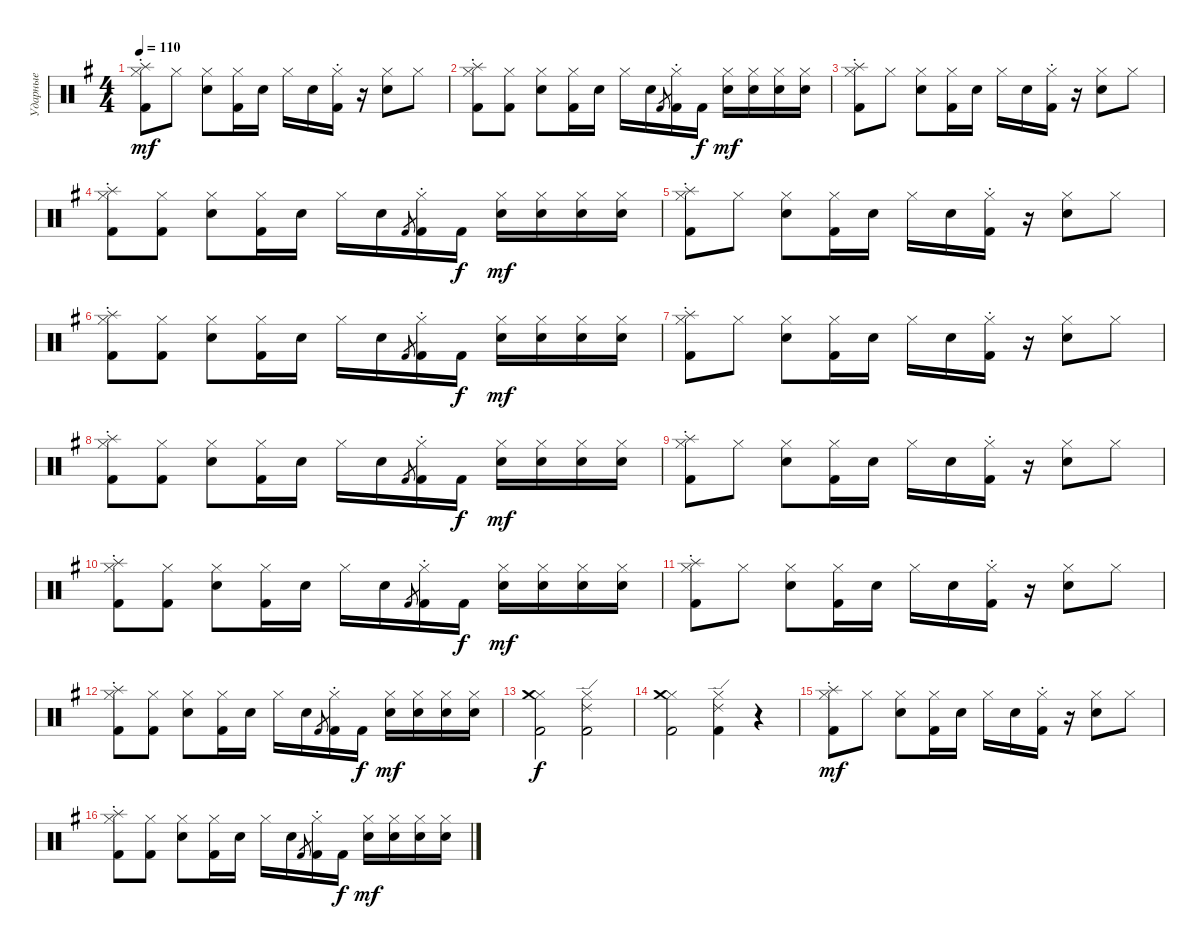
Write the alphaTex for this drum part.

\track ("Ударные" "Ударные") {instrument percussion}
\staff {score}
\articulation defaults
\ts (4 4)
\tempo 110
\clef neutral
\ks eminor
("Hi-Hat (closed)" "Splash (hit)" "Kick (hit) 2"{st}).8{dy mf} "Hi-Hat (closed)".8 ("Hi-Hat (closed)" "Snare (hit) 2").8 ("Hi-Hat (closed)" "Kick (hit) 2").16 "Snare (hit) 2".16 "Hi-Hat (closed)".16 "Snare (hit) 2".16 ("Hi-Hat (closed)" "Kick (hit) 2"{st}).16 r.16 ("Hi-Hat (closed)" "Snare (hit) 2").8 "Hi-Hat (closed)".8 |
("Hi-Hat (closed)" "Splash (hit)" "Kick (hit) 2"{st}).8 ("Hi-Hat (closed)" "Kick (hit) 2").8 ("Hi-Hat (closed)" "Snare (hit) 2").8 ("Hi-Hat (closed)" "Kick (hit) 2").16 "Snare (hit) 2".16 "Hi-Hat (closed)".16 "Snare (hit) 2".16 "Kick (hit) 2".8{gr} ("Hi-Hat (closed)" "Kick (hit) 2"{st}).16 "Kick (hit) 2".16{dy f} ("Hi-Hat (closed)" "Snare (hit) 2").16{dy mf} ("Hi-Hat (closed)" "Snare (hit) 2").16 ("Hi-Hat (closed)" "Snare (hit) 2").16 ("Hi-Hat (closed)" "Snare (hit) 2").16 |
("Hi-Hat (closed)" "Splash (hit)" "Kick (hit) 2"{st}).8 "Hi-Hat (closed)".8 ("Hi-Hat (closed)" "Snare (hit) 2").8 ("Hi-Hat (closed)" "Kick (hit) 2").16 "Snare (hit) 2".16 "Hi-Hat (closed)".16 "Snare (hit) 2".16 ("Hi-Hat (closed)" "Kick (hit) 2"{st}).16 r.16 ("Hi-Hat (closed)" "Snare (hit) 2").8 "Hi-Hat (closed)".8 |
("Hi-Hat (closed)" "Splash (hit)" "Kick (hit) 2"{st}).8 ("Hi-Hat (closed)" "Kick (hit) 2").8 ("Hi-Hat (closed)" "Snare (hit) 2").8 ("Hi-Hat (closed)" "Kick (hit) 2").16 "Snare (hit) 2".16 "Hi-Hat (closed)".16 "Snare (hit) 2".16 "Kick (hit) 2".8{gr} ("Hi-Hat (closed)" "Kick (hit) 2"{st}).16 "Kick (hit) 2".16{dy f} ("Hi-Hat (closed)" "Snare (hit) 2").16{dy mf} ("Hi-Hat (closed)" "Snare (hit) 2").16 ("Hi-Hat (closed)" "Snare (hit) 2").16 ("Hi-Hat (closed)" "Snare (hit) 2").16 |
("Hi-Hat (closed)" "Splash (hit)" "Kick (hit) 2"{st}).8 "Hi-Hat (closed)".8 ("Hi-Hat (closed)" "Snare (hit) 2").8 ("Hi-Hat (closed)" "Kick (hit) 2").16 "Snare (hit) 2".16 "Hi-Hat (closed)".16 "Snare (hit) 2".16 ("Hi-Hat (closed)" "Kick (hit) 2"{st}).16 r.16 ("Hi-Hat (closed)" "Snare (hit) 2").8 "Hi-Hat (closed)".8 |
("Hi-Hat (closed)" "Splash (hit)" "Kick (hit) 2"{st}).8 ("Hi-Hat (closed)" "Kick (hit) 2").8 ("Hi-Hat (closed)" "Snare (hit) 2").8 ("Hi-Hat (closed)" "Kick (hit) 2").16 "Snare (hit) 2".16 "Hi-Hat (closed)".16 "Snare (hit) 2".16 "Kick (hit) 2".8{gr} ("Hi-Hat (closed)" "Kick (hit) 2"{st}).16 "Kick (hit) 2".16{dy f} ("Hi-Hat (closed)" "Snare (hit) 2").16{dy mf} ("Hi-Hat (closed)" "Snare (hit) 2").16 ("Hi-Hat (closed)" "Snare (hit) 2").16 ("Hi-Hat (closed)" "Snare (hit) 2").16 |
("Hi-Hat (closed)" "Splash (hit)" "Kick (hit) 2"{st}).8 "Hi-Hat (closed)".8 ("Hi-Hat (closed)" "Snare (hit) 2").8 ("Hi-Hat (closed)" "Kick (hit) 2").16 "Snare (hit) 2".16 "Hi-Hat (closed)".16 "Snare (hit) 2".16 ("Hi-Hat (closed)" "Kick (hit) 2"{st}).16 r.16 ("Hi-Hat (closed)" "Snare (hit) 2").8 "Hi-Hat (closed)".8 |
("Hi-Hat (closed)" "Splash (hit)" "Kick (hit) 2"{st}).8 ("Hi-Hat (closed)" "Kick (hit) 2").8 ("Hi-Hat (closed)" "Snare (hit) 2").8 ("Hi-Hat (closed)" "Kick (hit) 2").16 "Snare (hit) 2".16 "Hi-Hat (closed)".16 "Snare (hit) 2".16 "Kick (hit) 2".8{gr} ("Hi-Hat (closed)" "Kick (hit) 2"{st}).16 "Kick (hit) 2".16{dy f} ("Hi-Hat (closed)" "Snare (hit) 2").16{dy mf} ("Hi-Hat (closed)" "Snare (hit) 2").16 ("Hi-Hat (closed)" "Snare (hit) 2").16 ("Hi-Hat (closed)" "Snare (hit) 2").16 |
("Hi-Hat (closed)" "Splash (hit)" "Kick (hit) 2"{st}).8 "Hi-Hat (closed)".8 ("Hi-Hat (closed)" "Snare (hit) 2").8 ("Hi-Hat (closed)" "Kick (hit) 2").16 "Snare (hit) 2".16 "Hi-Hat (closed)".16 "Snare (hit) 2".16 ("Hi-Hat (closed)" "Kick (hit) 2"{st}).16 r.16 ("Hi-Hat (closed)" "Snare (hit) 2").8 "Hi-Hat (closed)".8 |
("Hi-Hat (closed)" "Splash (hit)" "Kick (hit) 2"{st}).8 ("Hi-Hat (closed)" "Kick (hit) 2").8 ("Hi-Hat (closed)" "Snare (hit) 2").8 ("Hi-Hat (closed)" "Kick (hit) 2").16 "Snare (hit) 2".16 "Hi-Hat (closed)".16 "Snare (hit) 2".16 "Kick (hit) 2".8{gr} ("Hi-Hat (closed)" "Kick (hit) 2"{st}).16 "Kick (hit) 2".16{dy f} ("Hi-Hat (closed)" "Snare (hit) 2").16{dy mf} ("Hi-Hat (closed)" "Snare (hit) 2").16 ("Hi-Hat (closed)" "Snare (hit) 2").16 ("Hi-Hat (closed)" "Snare (hit) 2").16 |
("Hi-Hat (closed)" "Splash (hit)" "Kick (hit) 2"{st}).8 "Hi-Hat (closed)".8 ("Hi-Hat (closed)" "Snare (hit) 2").8 ("Hi-Hat (closed)" "Kick (hit) 2").16 "Snare (hit) 2".16 "Hi-Hat (closed)".16 "Snare (hit) 2".16 ("Hi-Hat (closed)" "Kick (hit) 2"{st}).16 r.16 ("Hi-Hat (closed)" "Snare (hit) 2").8 "Hi-Hat (closed)".8 |
("Hi-Hat (closed)" "Splash (hit)" "Kick (hit) 2"{st}).8 ("Hi-Hat (closed)" "Kick (hit) 2").8 ("Hi-Hat (closed)" "Snare (hit) 2").8 ("Hi-Hat (closed)" "Kick (hit) 2").16 "Snare (hit) 2".16 "Hi-Hat (closed)".16 "Snare (hit) 2".16 "Kick (hit) 2".8{gr} ("Hi-Hat (closed)" "Kick (hit) 2"{st}).16 "Kick (hit) 2".16{dy f} ("Hi-Hat (closed)" "Snare (hit) 2").16{dy mf} ("Hi-Hat (closed)" "Snare (hit) 2").16 ("Hi-Hat (closed)" "Snare (hit) 2").16 ("Hi-Hat (closed)" "Snare (hit) 2").16 |
("Hi-Hat (closed)" "Crash medium (hit)" "Kick (hit) 2").2{dy f} ("Hi-Hat (closed)" "Ride (edge) 2" "Kick (hit) 2").2 |
("Hi-Hat (closed)" "Crash medium (hit)" "Kick (hit) 2").2 ("Hi-Hat (closed)" "Ride (edge) 2" "Kick (hit) 2").4 r.4 |
("Hi-Hat (closed)" "Splash (hit)" "Kick (hit) 2"{st}).8{dy mf} "Hi-Hat (closed)".8 ("Hi-Hat (closed)" "Snare (hit) 2").8 ("Hi-Hat (closed)" "Kick (hit) 2").16 "Snare (hit) 2".16 "Hi-Hat (closed)".16 "Snare (hit) 2".16 ("Hi-Hat (closed)" "Kick (hit) 2"{st}).16 r.16 ("Hi-Hat (closed)" "Snare (hit) 2").8 "Hi-Hat (closed)".8 |
("Hi-Hat (closed)" "Splash (hit)" "Kick (hit) 2"{st}).8 ("Hi-Hat (closed)" "Kick (hit) 2").8 ("Hi-Hat (closed)" "Snare (hit) 2").8 ("Hi-Hat (closed)" "Kick (hit) 2").16 "Snare (hit) 2".16 "Hi-Hat (closed)".16 "Snare (hit) 2".16 "Kick (hit) 2".8{gr} ("Hi-Hat (closed)" "Kick (hit) 2"{st}).16 "Kick (hit) 2".16{dy f} ("Hi-Hat (closed)" "Snare (hit) 2").16{dy mf} ("Hi-Hat (closed)" "Snare (hit) 2").16 ("Hi-Hat (closed)" "Snare (hit) 2").16 ("Hi-Hat (closed)" "Snare (hit) 2").16
